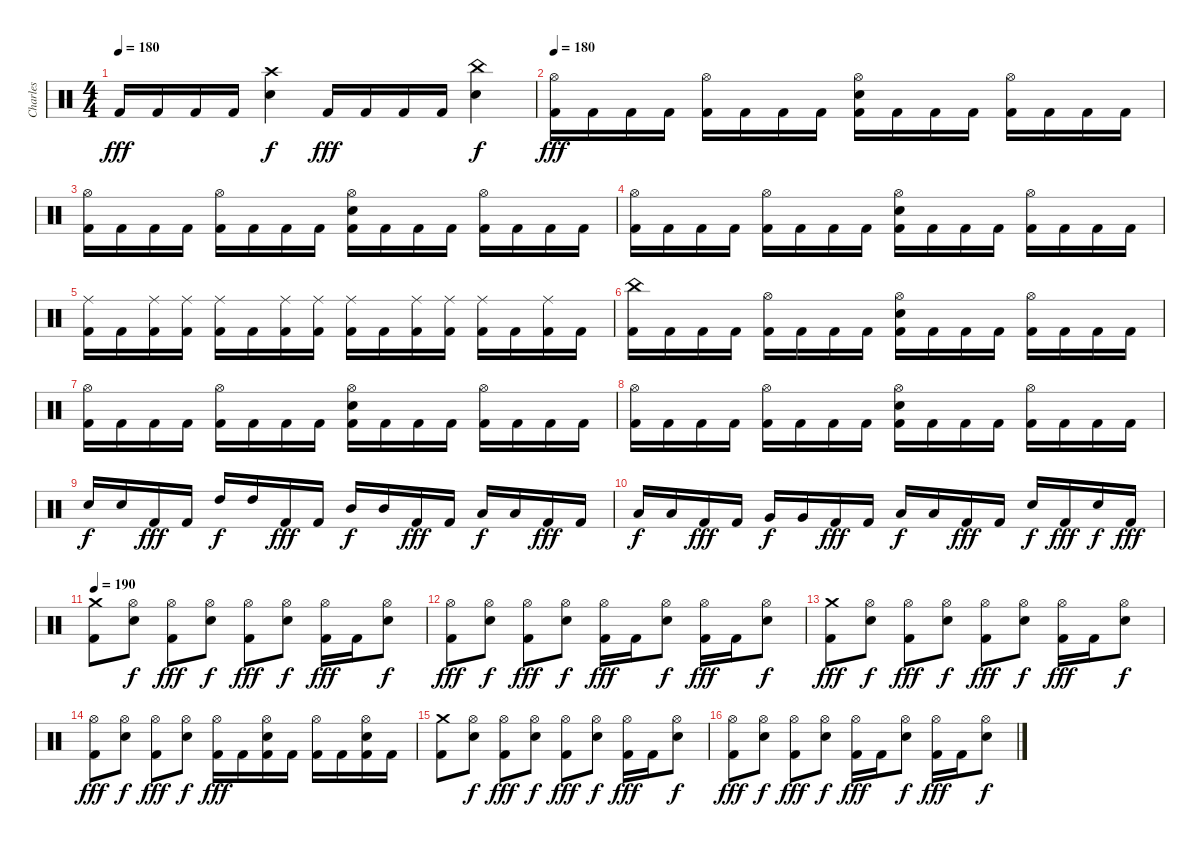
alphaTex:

\track ("Charles" "Charles") {instrument percussion}
\staff {score}
\articulation defaults
\ts (4 4)
\tempo 180
\clef neutral
\ks c "Kick (hit) 2".16{dy fff} "Kick (hit) 2".16 "Kick (hit) 2".16 "Kick (hit) 2".16
("Crash high (hit)" "Electric Snare (hit)").4{dy f} "Kick (hit) 2".16{dy fff} "Kick (hit) 2".16 "Kick (hit) 2".16 "Kick (hit) 2".16 ("China (hit)" "Electric Snare (hit)").4{dy f} |
\tempo 180
("Hi-Hat (open)" "Kick (hit) 2").16{dy fff} "Kick (hit) 2".16 "Kick (hit) 2".16 "Kick (hit) 2".16 ("Hi-Hat (open)" "Kick (hit) 2").16 "Kick (hit) 2".16 "Kick (hit) 2".16 "Kick (hit) 2".16 ("Hi-Hat (open)" "Electric Snare (hit)" "Kick (hit) 2").16 "Kick (hit) 2".16 "Kick (hit) 2".16 "Kick (hit) 2".16 ("Hi-Hat (open)" "Kick (hit) 2").16 "Kick (hit) 2".16 "Kick (hit) 2".16 "Kick (hit) 2".16 |
("Hi-Hat (open)" "Kick (hit) 2").16 "Kick (hit) 2".16 "Kick (hit) 2".16 "Kick (hit) 2".16 ("Hi-Hat (open)" "Kick (hit) 2").16 "Kick (hit) 2".16 "Kick (hit) 2".16 "Kick (hit) 2".16 ("Hi-Hat (open)" "Electric Snare (hit)" "Kick (hit) 2").16 "Kick (hit) 2".16 "Kick (hit) 2".16 "Kick (hit) 2".16 ("Hi-Hat (open)" "Kick (hit) 2").16 "Kick (hit) 2".16 "Kick (hit) 2".16 "Kick (hit) 2".16 |
("Hi-Hat (open)" "Kick (hit) 2").16 "Kick (hit) 2".16 "Kick (hit) 2".16 "Kick (hit) 2".16 ("Hi-Hat (open)" "Kick (hit) 2").16 "Kick (hit) 2".16 "Kick (hit) 2".16 "Kick (hit) 2".16 ("Hi-Hat (open)" "Electric Snare (hit)" "Kick (hit) 2").16 "Kick (hit) 2".16 "Kick (hit) 2".16 "Kick (hit) 2".16 ("Hi-Hat (open)" "Kick (hit) 2").16 "Kick (hit) 2".16 "Kick (hit) 2".16 "Kick (hit) 2".16 |
("Ride (middle)" "Kick (hit) 2").16 "Kick (hit) 2".16 ("Ride (middle)" "Kick (hit) 2").16 ("Ride (middle)" "Kick (hit) 2").16 ("Ride (middle)" "Kick (hit) 2").16 "Kick (hit) 2".16 ("Ride (middle)" "Kick (hit) 2").16 ("Ride (middle)" "Kick (hit) 2").16 ("Ride (middle)" "Kick (hit) 2").16 "Kick (hit) 2".16 ("Ride (middle)" "Kick (hit) 2").16 ("Ride (middle)" "Kick (hit) 2").16 ("Ride (middle)" "Kick (hit) 2").16 "Kick (hit) 2".16 ("Ride (middle)" "Kick (hit) 2").16 "Kick (hit) 2".16 |
("China (hit)" "Kick (hit) 2").16 "Kick (hit) 2".16 "Kick (hit) 2".16 "Kick (hit) 2".16 ("Hi-Hat (open)" "Kick (hit) 2").16 "Kick (hit) 2".16 "Kick (hit) 2".16 "Kick (hit) 2".16 ("Hi-Hat (open)" "Electric Snare (hit)" "Kick (hit) 2").16 "Kick (hit) 2".16 "Kick (hit) 2".16 "Kick (hit) 2".16 ("Hi-Hat (open)" "Kick (hit) 2").16 "Kick (hit) 2".16 "Kick (hit) 2".16 "Kick (hit) 2".16 |
("Hi-Hat (open)" "Kick (hit) 2").16 "Kick (hit) 2".16 "Kick (hit) 2".16 "Kick (hit) 2".16 ("Hi-Hat (open)" "Kick (hit) 2").16 "Kick (hit) 2".16 "Kick (hit) 2".16 "Kick (hit) 2".16 ("Hi-Hat (open)" "Electric Snare (hit)" "Kick (hit) 2").16 "Kick (hit) 2".16 "Kick (hit) 2".16 "Kick (hit) 2".16 ("Hi-Hat (open)" "Kick (hit) 2").16 "Kick (hit) 2".16 "Kick (hit) 2".16 "Kick (hit) 2".16 |
("Hi-Hat (open)" "Kick (hit) 2").16 "Kick (hit) 2".16 "Kick (hit) 2".16 "Kick (hit) 2".16 ("Hi-Hat (open)" "Kick (hit) 2").16 "Kick (hit) 2".16 "Kick (hit) 2".16 "Kick (hit) 2".16 ("Hi-Hat (open)" "Electric Snare (hit)" "Kick (hit) 2").16 "Kick (hit) 2".16 "Kick (hit) 2".16 "Kick (hit) 2".16 ("Hi-Hat (open)" "Kick (hit) 2").16 "Kick (hit) 2".16 "Kick (hit) 2".16 "Kick (hit) 2".16 |
"Electric Snare (hit)".16{dy f} "Electric Snare (hit)".16 "Kick (hit) 2".16{dy fff} "Kick (hit) 2".16 "High Tom (hit)".16{dy f} "High Tom (hit)".16 "Kick (hit) 2".16{dy fff} "Kick (hit) 2".16 "Mid Tom (hit)".16{dy f} "Mid Tom (hit)".16 "Kick (hit) 2".16{dy fff} "Kick (hit) 2".16 "Low Tom (hit)".16{dy f} "Low Tom (hit)".16 "Kick (hit) 2".16{dy fff} "Kick (hit) 2".16 |
"Low Tom (hit)".16{dy f} "Low Tom (hit)".16 "Kick (hit) 2".16{dy fff} "Kick (hit) 2".16 "Very Low Tom (hit)".16{dy f} "Very Low Tom (hit)".16 "Kick (hit) 2".16{dy fff} "Kick (hit) 2".16 "Low Floor Tom (hit)".16{dy f} "Low Floor Tom (hit)".16 "Kick (hit) 2".16{dy fff} "Kick (hit) 2".16 "Electric Snare (hit)".16{dy f} "Kick (hit) 2".16{dy fff} "Electric Snare (hit)".16{dy f} "Kick (hit) 2".16{dy fff} |
\tempo 190
("Crash medium (hit)" "Kick (hit) 2").8 ("Hi-Hat (open)" "Electric Snare (hit)").8{dy f} ("Hi-Hat (open)" "Kick (hit) 2").8{dy fff} ("Hi-Hat (open)" "Electric Snare (hit)").8{dy f} ("Hi-Hat (open)" "Kick (hit) 2").8{dy fff} ("Hi-Hat (open)" "Electric Snare (hit)").8{dy f} ("Hi-Hat (open)" "Kick (hit) 2").16{dy fff} "Kick (hit) 2".16 ("Hi-Hat (open)" "Electric Snare (hit)").8{dy f} |
("Hi-Hat (open)" "Kick (hit) 2").8{dy fff} ("Hi-Hat (open)" "Electric Snare (hit)").8{dy f} ("Hi-Hat (open)" "Kick (hit) 2").8{dy fff} ("Hi-Hat (open)" "Electric Snare (hit)").8{dy f} ("Hi-Hat (open)" "Kick (hit) 2").16{dy fff} "Kick (hit) 2".16 ("Hi-Hat (open)" "Electric Snare (hit)").8{dy f} ("Hi-Hat (open)" "Kick (hit) 2").16{dy fff} "Kick (hit) 2".16 ("Hi-Hat (open)" "Electric Snare (hit)").8{dy f} |
("Crash medium (hit)" "Kick (hit) 2").8{dy fff} ("Hi-Hat (open)" "Electric Snare (hit)").8{dy f} ("Hi-Hat (open)" "Kick (hit) 2").8{dy fff} ("Hi-Hat (open)" "Electric Snare (hit)").8{dy f} ("Hi-Hat (open)" "Kick (hit) 2").8{dy fff} ("Hi-Hat (open)" "Electric Snare (hit)").8{dy f} ("Hi-Hat (open)" "Kick (hit) 2").16{dy fff} "Kick (hit) 2".16 ("Hi-Hat (open)" "Electric Snare (hit)").8{dy f} |
("Hi-Hat (open)" "Kick (hit) 2").8{dy fff} ("Hi-Hat (open)" "Electric Snare (hit)").8{dy f} ("Hi-Hat (open)" "Kick (hit) 2").8{dy fff} ("Hi-Hat (open)" "Electric Snare (hit)").8{dy f} ("Hi-Hat (open)" "Kick (hit) 2").16{dy fff} "Kick (hit) 2".16 ("Hi-Hat (open)" "Electric Snare (hit)" "Kick (hit) 2").16 "Kick (hit) 2".16 ("Hi-Hat (open)" "Kick (hit) 2").16 "Kick (hit) 2".16 ("Hi-Hat (open)" "Electric Snare (hit)" "Kick (hit) 2").16 "Kick (hit) 2".16 |
("Crash medium (hit)" "Kick (hit) 2").8 ("Hi-Hat (open)" "Electric Snare (hit)").8{dy f} ("Hi-Hat (open)" "Kick (hit) 2").8{dy fff} ("Hi-Hat (open)" "Electric Snare (hit)").8{dy f} ("Hi-Hat (open)" "Kick (hit) 2").8{dy fff} ("Hi-Hat (open)" "Electric Snare (hit)").8{dy f} ("Hi-Hat (open)" "Kick (hit) 2").16{dy fff} "Kick (hit) 2".16 ("Hi-Hat (open)" "Electric Snare (hit)").8{dy f} |
("Hi-Hat (open)" "Kick (hit) 2").8{dy fff} ("Hi-Hat (open)" "Electric Snare (hit)").8{dy f} ("Hi-Hat (open)" "Kick (hit) 2").8{dy fff} ("Hi-Hat (open)" "Electric Snare (hit)").8{dy f} ("Hi-Hat (open)" "Kick (hit) 2").16{dy fff} "Kick (hit) 2".16 ("Hi-Hat (open)" "Electric Snare (hit)").8{dy f} ("Hi-Hat (open)" "Kick (hit) 2").16{dy fff} "Kick (hit) 2".16 ("Hi-Hat (open)" "Electric Snare (hit)").8{dy f}
